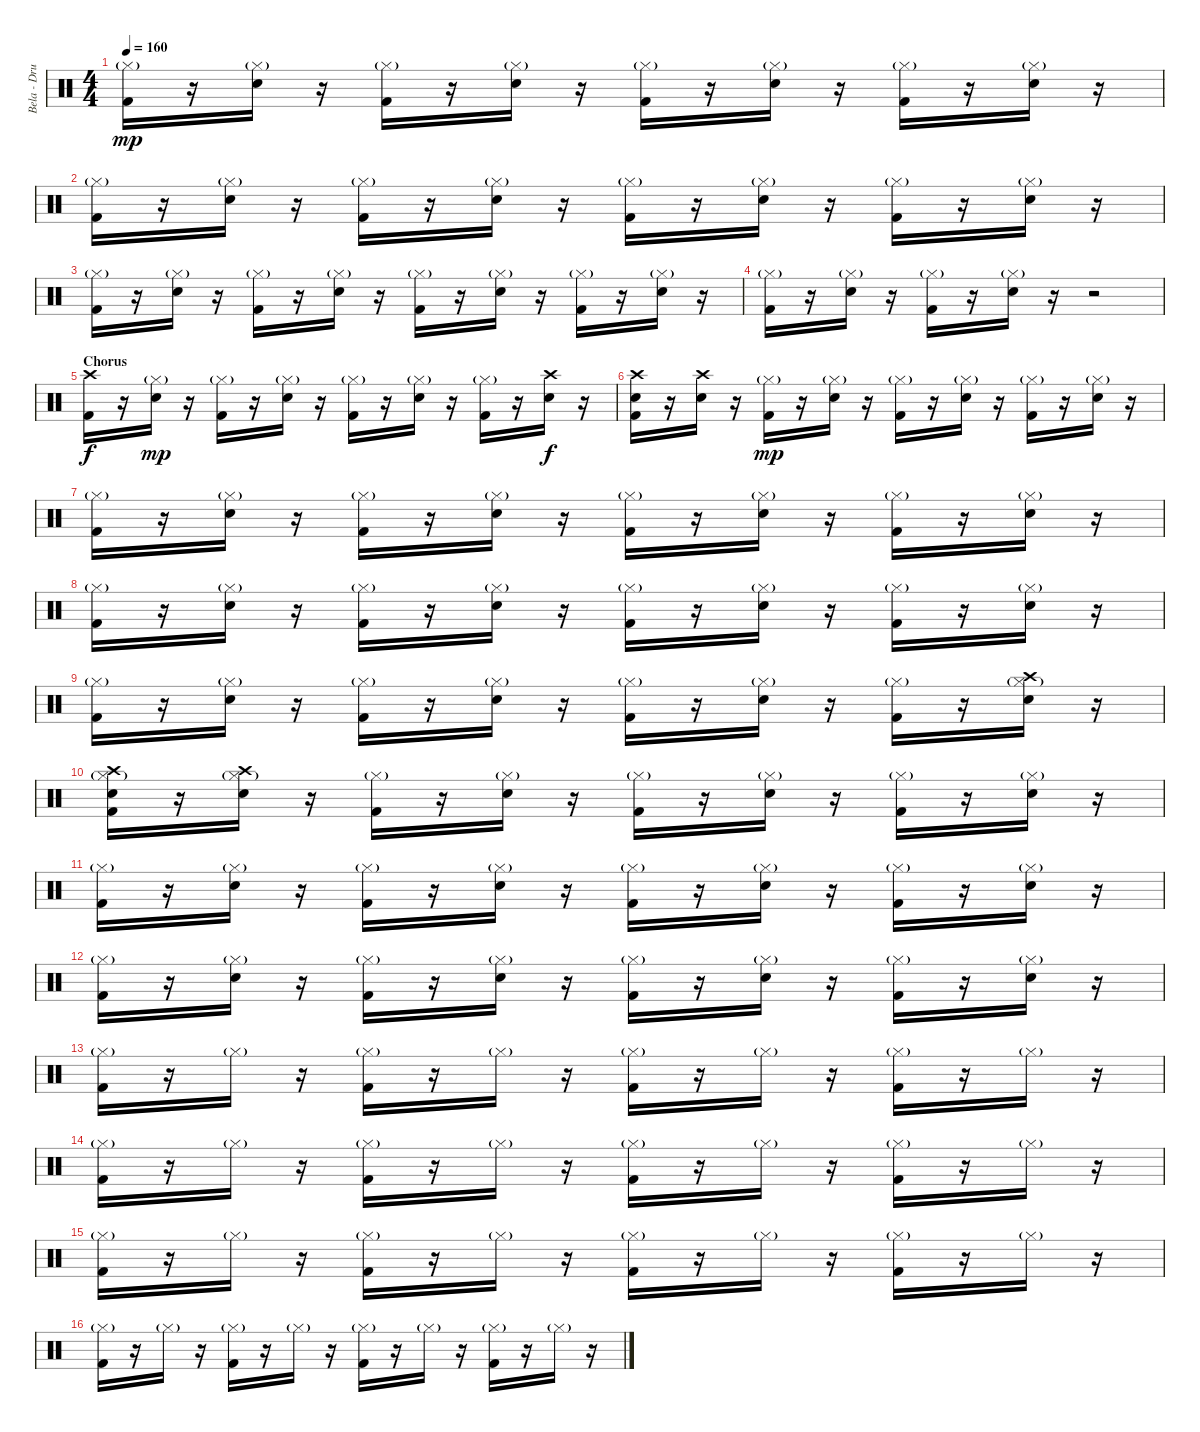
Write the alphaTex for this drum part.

\track ("Bela - Drums" "Bela - Dru") {instrument percussion}
\staff {score}
\articulation defaults
\ts (4 4)
\tempo 160
\clef neutral
\ks c
("Hi-Hat (closed)"{g} "Kick (hit) 2").16{dy mp} r.16 ("Hi-Hat (closed)"{g} "Electric Snare (hit)").16 r.16 ("Hi-Hat (closed)"{g} "Kick (hit) 2").16 r.16 ("Hi-Hat (closed)"{g} "Electric Snare (hit)").16 r.16 ("Hi-Hat (closed)"{g} "Kick (hit) 2").16 r.16 ("Hi-Hat (closed)"{g} "Electric Snare (hit)").16 r.16 ("Hi-Hat (closed)"{g} "Kick (hit) 2").16 r.16 ("Hi-Hat (closed)"{g} "Electric Snare (hit)").16 r.16 |
("Hi-Hat (closed)"{g} "Kick (hit) 2").16 r.16 ("Hi-Hat (closed)"{g} "Electric Snare (hit)").16 r.16 ("Hi-Hat (closed)"{g} "Kick (hit) 2").16 r.16 ("Hi-Hat (closed)"{g} "Electric Snare (hit)").16 r.16 ("Hi-Hat (closed)"{g} "Kick (hit) 2").16 r.16 ("Hi-Hat (closed)"{g} "Electric Snare (hit)").16 r.16 ("Hi-Hat (closed)"{g} "Kick (hit) 2").16 r.16 ("Hi-Hat (closed)"{g} "Electric Snare (hit)").16 r.16 |
("Hi-Hat (closed)"{g} "Kick (hit) 2").16 r.16 ("Hi-Hat (closed)"{g} "Electric Snare (hit)").16 r.16 ("Hi-Hat (closed)"{g} "Kick (hit) 2").16 r.16 ("Hi-Hat (closed)"{g} "Electric Snare (hit)").16 r.16 ("Hi-Hat (closed)"{g} "Kick (hit) 2").16 r.16 ("Hi-Hat (closed)"{g} "Electric Snare (hit)").16 r.16 ("Hi-Hat (closed)"{g} "Kick (hit) 2").16 r.16 ("Hi-Hat (closed)"{g} "Electric Snare (hit)").16 r.16 |
("Hi-Hat (closed)"{g} "Kick (hit) 2").16 r.16 ("Hi-Hat (closed)"{g} "Electric Snare (hit)").16 r.16 ("Hi-Hat (closed)"{g} "Kick (hit) 2").16 r.16 ("Hi-Hat (closed)"{g} "Electric Snare (hit)").16 r.16 r.2 |
\section ("" "Chorus")
("Crash high (hit)" "Kick (hit) 2").16{dy f} r.16 ("Hi-Hat (closed)"{g} "Electric Snare (hit)").16{dy mp} r.16 ("Hi-Hat (closed)"{g} "Kick (hit) 2").16 r.16 ("Hi-Hat (closed)"{g} "Electric Snare (hit)").16 r.16 ("Hi-Hat (closed)"{g} "Kick (hit) 2").16 r.16 ("Hi-Hat (closed)"{g} "Electric Snare (hit)").16 r.16 ("Hi-Hat (closed)"{g} "Kick (hit) 2").16 r.16 ("Crash high (hit)" "Electric Snare (hit)").16{dy f} r.16 |
("Crash high (hit)" "Electric Snare (hit)" "Kick (hit) 2").16 r.16 ("Crash high (hit)" "Electric Snare (hit)").16 r.16 ("Hi-Hat (closed)"{g} "Kick (hit) 2").16{dy mp} r.16 ("Hi-Hat (closed)"{g} "Electric Snare (hit)").16 r.16 ("Hi-Hat (closed)"{g} "Kick (hit) 2").16 r.16 ("Hi-Hat (closed)"{g} "Electric Snare (hit)").16 r.16 ("Hi-Hat (closed)"{g} "Kick (hit) 2").16 r.16 ("Hi-Hat (closed)"{g} "Electric Snare (hit)").16 r.16 |
("Hi-Hat (closed)"{g} "Kick (hit) 2").16 r.16 ("Hi-Hat (closed)"{g} "Electric Snare (hit)").16 r.16 ("Hi-Hat (closed)"{g} "Kick (hit) 2").16 r.16 ("Hi-Hat (closed)"{g} "Electric Snare (hit)").16 r.16 ("Hi-Hat (closed)"{g} "Kick (hit) 2").16 r.16 ("Hi-Hat (closed)"{g} "Electric Snare (hit)").16 r.16 ("Hi-Hat (closed)"{g} "Kick (hit) 2").16 r.16 ("Hi-Hat (closed)"{g} "Electric Snare (hit)").16 r.16 |
("Hi-Hat (closed)"{g} "Kick (hit) 2").16 r.16 ("Hi-Hat (closed)"{g} "Electric Snare (hit)").16 r.16 ("Hi-Hat (closed)"{g} "Kick (hit) 2").16 r.16 ("Hi-Hat (closed)"{g} "Electric Snare (hit)").16 r.16 ("Hi-Hat (closed)"{g} "Kick (hit) 2").16 r.16 ("Hi-Hat (closed)"{g} "Electric Snare (hit)").16 r.16 ("Hi-Hat (closed)"{g} "Kick (hit) 2").16 r.16 ("Hi-Hat (closed)"{g} "Electric Snare (hit)").16 r.16 |
("Hi-Hat (closed)"{g} "Kick (hit) 2").16 r.16 ("Hi-Hat (closed)"{g} "Electric Snare (hit)").16 r.16 ("Hi-Hat (closed)"{g} "Kick (hit) 2").16 r.16 ("Hi-Hat (closed)"{g} "Electric Snare (hit)").16 r.16 ("Hi-Hat (closed)"{g} "Kick (hit) 2").16 r.16 ("Hi-Hat (closed)"{g} "Electric Snare (hit)").16 r.16 ("Hi-Hat (closed)"{g} "Kick (hit) 2").16 r.16 ("Hi-Hat (closed)"{g} "Crash high (hit)" "Electric Snare (hit)").16 r.16 |
("Hi-Hat (closed)"{g} "Crash high (hit)" "Electric Snare (hit)" "Kick (hit) 2").16 r.16 ("Hi-Hat (closed)"{g} "Crash high (hit)" "Electric Snare (hit)").16 r.16 ("Hi-Hat (closed)"{g} "Kick (hit) 2").16 r.16 ("Hi-Hat (closed)"{g} "Electric Snare (hit)").16 r.16 ("Hi-Hat (closed)"{g} "Kick (hit) 2").16 r.16 ("Hi-Hat (closed)"{g} "Electric Snare (hit)").16 r.16 ("Hi-Hat (closed)"{g} "Kick (hit) 2").16 r.16 ("Hi-Hat (closed)"{g} "Electric Snare (hit)").16 r.16 |
("Hi-Hat (closed)"{g} "Kick (hit) 2").16 r.16 ("Hi-Hat (closed)"{g} "Electric Snare (hit)").16 r.16 ("Hi-Hat (closed)"{g} "Kick (hit) 2").16 r.16 ("Hi-Hat (closed)"{g} "Electric Snare (hit)").16 r.16 ("Hi-Hat (closed)"{g} "Kick (hit) 2").16 r.16 ("Hi-Hat (closed)"{g} "Electric Snare (hit)").16 r.16 ("Hi-Hat (closed)"{g} "Kick (hit) 2").16 r.16 ("Hi-Hat (closed)"{g} "Electric Snare (hit)").16 r.16 |
("Hi-Hat (closed)"{g} "Kick (hit) 2").16 r.16 ("Hi-Hat (closed)"{g} "Electric Snare (hit)").16 r.16 ("Hi-Hat (closed)"{g} "Kick (hit) 2").16 r.16 ("Hi-Hat (closed)"{g} "Electric Snare (hit)").16 r.16 ("Hi-Hat (closed)"{g} "Kick (hit) 2").16 r.16 ("Hi-Hat (closed)"{g} "Electric Snare (hit)").16 r.16 ("Hi-Hat (closed)"{g} "Kick (hit) 2").16 r.16 ("Hi-Hat (closed)"{g} "Electric Snare (hit)").16 r.16 |
("Hi-Hat (closed)"{g} "Kick (hit) 2").16 r.16 "Hi-Hat (closed)"{g}.16 r.16 ("Hi-Hat (closed)"{g} "Kick (hit) 2").16 r.16 "Hi-Hat (closed)"{g}.16 r.16 ("Hi-Hat (closed)"{g} "Kick (hit) 2").16 r.16 "Hi-Hat (closed)"{g}.16 r.16 ("Hi-Hat (closed)"{g} "Kick (hit) 2").16 r.16 "Hi-Hat (closed)"{g}.16 r.16 |
("Hi-Hat (closed)"{g} "Kick (hit) 2").16 r.16 "Hi-Hat (closed)"{g}.16 r.16 ("Hi-Hat (closed)"{g} "Kick (hit) 2").16 r.16 "Hi-Hat (closed)"{g}.16 r.16 ("Hi-Hat (closed)"{g} "Kick (hit) 2").16 r.16 "Hi-Hat (closed)"{g}.16 r.16 ("Hi-Hat (closed)"{g} "Kick (hit) 2").16 r.16 "Hi-Hat (closed)"{g}.16 r.16 |
("Hi-Hat (closed)"{g} "Kick (hit) 2").16 r.16 "Hi-Hat (closed)"{g}.16 r.16 ("Hi-Hat (closed)"{g} "Kick (hit) 2").16 r.16 "Hi-Hat (closed)"{g}.16 r.16 ("Hi-Hat (closed)"{g} "Kick (hit) 2").16 r.16 "Hi-Hat (closed)"{g}.16 r.16 ("Hi-Hat (closed)"{g} "Kick (hit) 2").16 r.16 "Hi-Hat (closed)"{g}.16 r.16 |
("Hi-Hat (closed)"{g} "Kick (hit) 2").16 r.16 "Hi-Hat (closed)"{g}.16 r.16 ("Hi-Hat (closed)"{g} "Kick (hit) 2").16 r.16 "Hi-Hat (closed)"{g}.16 r.16 ("Hi-Hat (closed)"{g} "Kick (hit) 2").16 r.16 "Hi-Hat (closed)"{g}.16 r.16 ("Hi-Hat (closed)"{g} "Kick (hit) 2").16 r.16 "Hi-Hat (closed)"{g}.16 r.16
